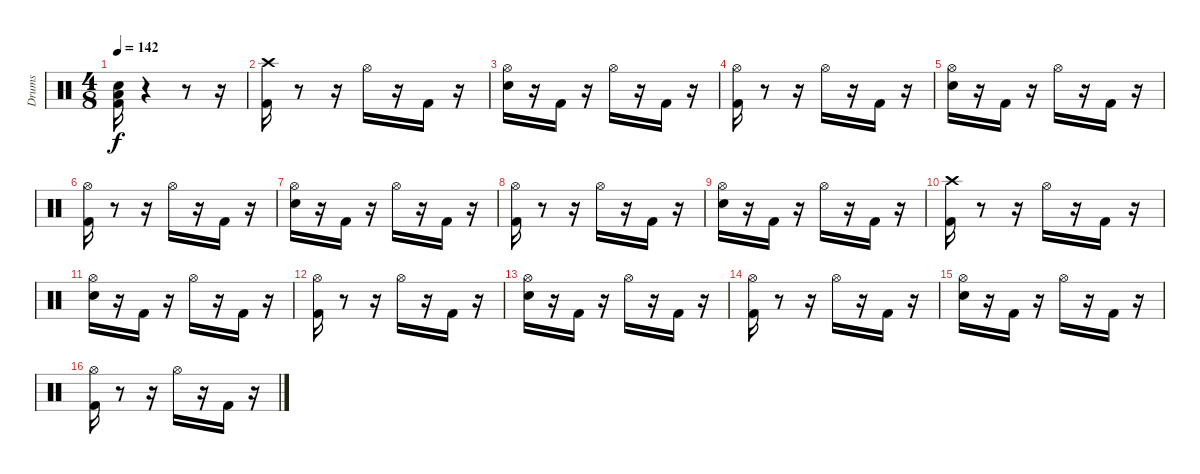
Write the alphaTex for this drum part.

\track ("Drums" "Drums") {instrument percussion}
\staff {score}
\articulation defaults
\ts (4 8)
\tempo 142
\clef neutral
\ks c
("Electric Snare (hit)" "Kick (hit) 2" "Low Floor Tom (hit)").16{dy f} r.4 r.8 r.16 |
("Kick (hit) 2" "Crash high (hit)").16 r.8 r.16 "Hi-Hat (open)".16 r.16 "Kick (hit) 2".16 r.16 |
("Electric Snare (hit)" "Hi-Hat (open)").16 r.16 "Kick (hit) 2".16 r.16 "Hi-Hat (open)".16 r.16 "Kick (hit) 2".16 r.16 |
("Kick (hit) 2" "Hi-Hat (open)").16 r.8 r.16 "Hi-Hat (open)".16 r.16 "Kick (hit) 2".16 r.16 |
("Electric Snare (hit)" "Hi-Hat (open)").16 r.16 "Kick (hit) 2".16 r.16 "Hi-Hat (open)".16 r.16 "Kick (hit) 2".16 r.16 |
("Kick (hit) 2" "Hi-Hat (open)").16 r.8 r.16 "Hi-Hat (open)".16 r.16 "Kick (hit) 2".16 r.16 |
("Electric Snare (hit)" "Hi-Hat (open)").16 r.16 "Kick (hit) 2".16 r.16 "Hi-Hat (open)".16 r.16 "Kick (hit) 2".16 r.16 |
("Kick (hit) 2" "Hi-Hat (open)").16 r.8 r.16 "Hi-Hat (open)".16 r.16 "Kick (hit) 2".16 r.16 |
("Electric Snare (hit)" "Hi-Hat (open)").16 r.16 "Kick (hit) 2".16 r.16 "Hi-Hat (open)".16 r.16 "Kick (hit) 2".16 r.16 |
("Kick (hit) 2" "Crash high (hit)").16 r.8 r.16 "Hi-Hat (open)".16 r.16 "Kick (hit) 2".16 r.16 |
("Electric Snare (hit)" "Hi-Hat (open)").16 r.16 "Kick (hit) 2".16 r.16 "Hi-Hat (open)".16 r.16 "Kick (hit) 2".16 r.16 |
("Kick (hit) 2" "Hi-Hat (open)").16 r.8 r.16 "Hi-Hat (open)".16 r.16 "Kick (hit) 2".16 r.16 |
("Electric Snare (hit)" "Hi-Hat (open)").16 r.16 "Kick (hit) 2".16 r.16 "Hi-Hat (open)".16 r.16 "Kick (hit) 2".16 r.16 |
("Kick (hit) 2" "Hi-Hat (open)").16 r.8 r.16 "Hi-Hat (open)".16 r.16 "Kick (hit) 2".16 r.16 |
("Electric Snare (hit)" "Hi-Hat (open)").16 r.16 "Kick (hit) 2".16 r.16 "Hi-Hat (open)".16 r.16 "Kick (hit) 2".16 r.16 |
("Kick (hit) 2" "Hi-Hat (open)").16 r.8 r.16 "Hi-Hat (open)".16 r.16 "Kick (hit) 2".16 r.16
